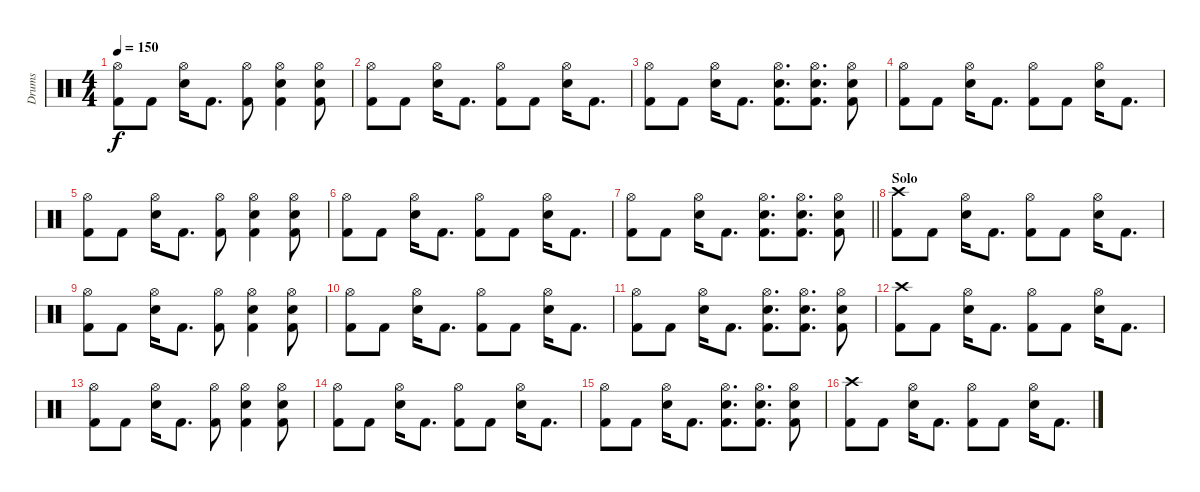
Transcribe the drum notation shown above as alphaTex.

\track ("Drums" "Drums") {instrument percussion}
\staff {score}
\articulation defaults
\ts (4 4)
\tempo 150
\clef neutral
\ks c
("Hi-Hat (open)" "Kick (hit) 2").8{dy f} "Kick (hit) 2".8 ("Hi-Hat (open)" "Snare (hit) 2").16 "Kick (hit) 2".8{d} ("Hi-Hat (open)" "Kick (hit) 2").8 ("Hi-Hat (open)" "Snare (hit) 2" "Kick (hit) 2").4 ("Hi-Hat (open)" "Snare (hit) 2" "Kick (hit) 2").8 |
("Hi-Hat (open)" "Kick (hit) 2").8 "Kick (hit) 2".8 ("Hi-Hat (open)" "Snare (hit) 2").16 "Kick (hit) 2".8{d} ("Hi-Hat (open)" "Kick (hit) 2").8 "Kick (hit) 2".8 ("Hi-Hat (open)" "Snare (hit) 2").16 "Kick (hit) 2".8{d} |
("Hi-Hat (open)" "Kick (hit) 2").8 "Kick (hit) 2".8 ("Hi-Hat (open)" "Snare (hit) 2").16 "Kick (hit) 2".8{d} ("Hi-Hat (open)" "Snare (hit) 2" "Kick (hit) 2").8{d} ("Hi-Hat (open)" "Snare (hit) 2" "Kick (hit) 2").8{d} ("Hi-Hat (open)" "Snare (hit) 2" "Kick (hit) 2").8 |
("Hi-Hat (open)" "Kick (hit) 2").8 "Kick (hit) 2".8 ("Hi-Hat (open)" "Snare (hit) 2").16 "Kick (hit) 2".8{d} ("Hi-Hat (open)" "Kick (hit) 2").8 "Kick (hit) 2".8 ("Hi-Hat (open)" "Snare (hit) 2").16 "Kick (hit) 2".8{d} |
("Hi-Hat (open)" "Kick (hit) 2").8 "Kick (hit) 2".8 ("Hi-Hat (open)" "Snare (hit) 2").16 "Kick (hit) 2".8{d} ("Hi-Hat (open)" "Kick (hit) 2").8 ("Hi-Hat (open)" "Snare (hit) 2" "Kick (hit) 2").4 ("Hi-Hat (open)" "Snare (hit) 2" "Kick (hit) 2").8 |
("Hi-Hat (open)" "Kick (hit) 2").8 "Kick (hit) 2".8 ("Hi-Hat (open)" "Snare (hit) 2").16 "Kick (hit) 2".8{d} ("Hi-Hat (open)" "Kick (hit) 2").8 "Kick (hit) 2".8 ("Hi-Hat (open)" "Snare (hit) 2").16 "Kick (hit) 2".8{d} |
\barLineRight lightlight
("Hi-Hat (open)" "Kick (hit) 2").8 "Kick (hit) 2".8 ("Hi-Hat (open)" "Snare (hit) 2").16 "Kick (hit) 2".8{d} ("Hi-Hat (open)" "Snare (hit) 2" "Kick (hit) 2").8{d} ("Hi-Hat (open)" "Snare (hit) 2" "Kick (hit) 2").8{d} ("Hi-Hat (open)" "Snare (hit) 2" "Kick (hit) 2").8 |
\section ("" "Solo")
("Crash high (hit)" "Kick (hit) 2").8 "Kick (hit) 2".8 ("Hi-Hat (open)" "Snare (hit) 2").16 "Kick (hit) 2".8{d} ("Hi-Hat (open)" "Kick (hit) 2").8 "Kick (hit) 2".8 ("Hi-Hat (open)" "Snare (hit) 2").16 "Kick (hit) 2".8{d} |
("Hi-Hat (open)" "Kick (hit) 2").8 "Kick (hit) 2".8 ("Hi-Hat (open)" "Snare (hit) 2").16 "Kick (hit) 2".8{d} ("Hi-Hat (open)" "Kick (hit) 2").8 ("Hi-Hat (open)" "Snare (hit) 2" "Kick (hit) 2").4 ("Hi-Hat (open)" "Snare (hit) 2" "Kick (hit) 2").8 |
("Hi-Hat (open)" "Kick (hit) 2").8 "Kick (hit) 2".8 ("Hi-Hat (open)" "Snare (hit) 2").16 "Kick (hit) 2".8{d} ("Hi-Hat (open)" "Kick (hit) 2").8 "Kick (hit) 2".8 ("Hi-Hat (open)" "Snare (hit) 2").16 "Kick (hit) 2".8{d} |
("Hi-Hat (open)" "Kick (hit) 2").8 "Kick (hit) 2".8 ("Hi-Hat (open)" "Snare (hit) 2").16 "Kick (hit) 2".8{d} ("Hi-Hat (open)" "Snare (hit) 2" "Kick (hit) 2").8{d} ("Hi-Hat (open)" "Snare (hit) 2" "Kick (hit) 2").8{d} ("Hi-Hat (open)" "Snare (hit) 2" "Kick (hit) 2").8 |
("Crash high (hit)" "Kick (hit) 2").8 "Kick (hit) 2".8 ("Hi-Hat (open)" "Snare (hit) 2").16 "Kick (hit) 2".8{d} ("Hi-Hat (open)" "Kick (hit) 2").8 "Kick (hit) 2".8 ("Hi-Hat (open)" "Snare (hit) 2").16 "Kick (hit) 2".8{d} |
("Hi-Hat (open)" "Kick (hit) 2").8 "Kick (hit) 2".8 ("Hi-Hat (open)" "Snare (hit) 2").16 "Kick (hit) 2".8{d} ("Hi-Hat (open)" "Kick (hit) 2").8 ("Hi-Hat (open)" "Snare (hit) 2" "Kick (hit) 2").4 ("Hi-Hat (open)" "Snare (hit) 2" "Kick (hit) 2").8 |
("Hi-Hat (open)" "Kick (hit) 2").8 "Kick (hit) 2".8 ("Hi-Hat (open)" "Snare (hit) 2").16 "Kick (hit) 2".8{d} ("Hi-Hat (open)" "Kick (hit) 2").8 "Kick (hit) 2".8 ("Hi-Hat (open)" "Snare (hit) 2").16 "Kick (hit) 2".8{d} |
("Hi-Hat (open)" "Kick (hit) 2").8 "Kick (hit) 2".8 ("Hi-Hat (open)" "Snare (hit) 2").16 "Kick (hit) 2".8{d} ("Hi-Hat (open)" "Snare (hit) 2" "Kick (hit) 2").8{d} ("Hi-Hat (open)" "Snare (hit) 2" "Kick (hit) 2").8{d} ("Hi-Hat (open)" "Snare (hit) 2" "Kick (hit) 2").8 |
("Crash high (hit)" "Kick (hit) 2").8 "Kick (hit) 2".8 ("Hi-Hat (open)" "Snare (hit) 2").16 "Kick (hit) 2".8{d} ("Hi-Hat (open)" "Kick (hit) 2").8 "Kick (hit) 2".8 ("Hi-Hat (open)" "Snare (hit) 2").16 "Kick (hit) 2".8{d}
